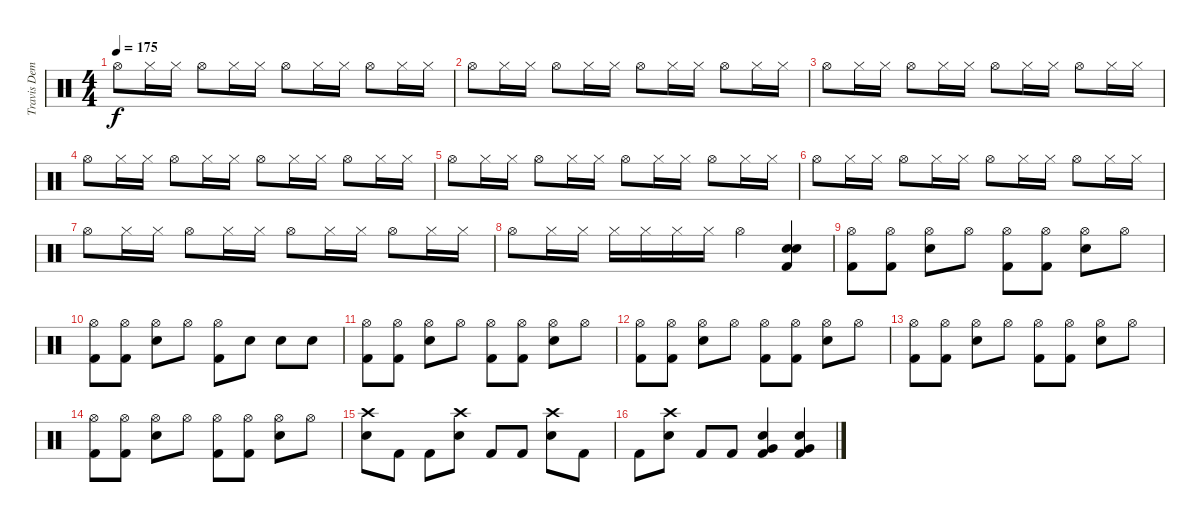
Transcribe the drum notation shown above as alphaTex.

\track ("Travis Dempsey" "Travis Dem") {instrument percussion}
\staff {score}
\articulation defaults
\ts (4 4)
\tempo 175
\clef neutral
\ks c "Hi-Hat (open)".8{dy f} "Hi-Hat (closed)".16 "Hi-Hat (closed)".16 "Hi-Hat (open)".8 "Hi-Hat (closed)".16 "Hi-Hat (closed)".16 "Hi-Hat (open)".8 "Hi-Hat (closed)".16 "Hi-Hat (closed)".16 "Hi-Hat (open)".8 "Hi-Hat (closed)".16 "Hi-Hat (closed)".16
|
"Hi-Hat (open)".8 "Hi-Hat (closed)".16 "Hi-Hat (closed)".16 "Hi-Hat (open)".8 "Hi-Hat (closed)".16 "Hi-Hat (closed)".16 "Hi-Hat (open)".8 "Hi-Hat (closed)".16 "Hi-Hat (closed)".16 "Hi-Hat (open)".8 "Hi-Hat (closed)".16 "Hi-Hat (closed)".16 |
"Hi-Hat (open)".8 "Hi-Hat (closed)".16 "Hi-Hat (closed)".16 "Hi-Hat (open)".8 "Hi-Hat (closed)".16 "Hi-Hat (closed)".16 "Hi-Hat (open)".8 "Hi-Hat (closed)".16 "Hi-Hat (closed)".16 "Hi-Hat (open)".8 "Hi-Hat (closed)".16 "Hi-Hat (closed)".16 |
"Hi-Hat (open)".8 "Hi-Hat (closed)".16 "Hi-Hat (closed)".16 "Hi-Hat (open)".8 "Hi-Hat (closed)".16 "Hi-Hat (closed)".16 "Hi-Hat (open)".8 "Hi-Hat (closed)".16 "Hi-Hat (closed)".16 "Hi-Hat (open)".8 "Hi-Hat (closed)".16 "Hi-Hat (closed)".16 |
"Hi-Hat (open)".8 "Hi-Hat (closed)".16 "Hi-Hat (closed)".16 "Hi-Hat (open)".8 "Hi-Hat (closed)".16 "Hi-Hat (closed)".16 "Hi-Hat (open)".8 "Hi-Hat (closed)".16 "Hi-Hat (closed)".16 "Hi-Hat (open)".8 "Hi-Hat (closed)".16 "Hi-Hat (closed)".16 |
"Hi-Hat (open)".8 "Hi-Hat (closed)".16 "Hi-Hat (closed)".16 "Hi-Hat (open)".8 "Hi-Hat (closed)".16 "Hi-Hat (closed)".16 "Hi-Hat (open)".8 "Hi-Hat (closed)".16 "Hi-Hat (closed)".16 "Hi-Hat (open)".8 "Hi-Hat (closed)".16 "Hi-Hat (closed)".16 |
"Hi-Hat (open)".8 "Hi-Hat (closed)".16 "Hi-Hat (closed)".16 "Hi-Hat (open)".8 "Hi-Hat (closed)".16 "Hi-Hat (closed)".16 "Hi-Hat (open)".8 "Hi-Hat (closed)".16 "Hi-Hat (closed)".16 "Hi-Hat (open)".8 "Hi-Hat (closed)".16 "Hi-Hat (closed)".16 |
"Hi-Hat (open)".8 "Hi-Hat (closed)".16 "Hi-Hat (closed)".16 "Hi-Hat (closed)".16 "Hi-Hat (closed)".16 "Hi-Hat (closed)".16 "Hi-Hat (closed)".16 "Hi-Hat (open)".4 ("Electric Snare (hit)" "Electric Snare (hit)" "Kick (hit) 2").4 |
("Hi-Hat (open)" "Kick (hit) 2").8 ("Hi-Hat (open)" "Kick (hit) 2").8 ("Hi-Hat (open)" "Electric Snare (hit)").8 "Hi-Hat (open)".8 ("Hi-Hat (open)" "Kick (hit) 2").8 ("Hi-Hat (open)" "Kick (hit) 2").8 ("Hi-Hat (open)" "Electric Snare (hit)").8 "Hi-Hat (open)".8 |
("Hi-Hat (open)" "Kick (hit) 2").8 ("Hi-Hat (open)" "Kick (hit) 2").8 ("Hi-Hat (open)" "Electric Snare (hit)").8 "Hi-Hat (open)".8 ("Hi-Hat (open)" "Kick (hit) 2").8 "Electric Snare (hit)".8 "Electric Snare (hit)".8 "Electric Snare (hit)".8 |
("Hi-Hat (open)" "Kick (hit) 2").8 ("Hi-Hat (open)" "Kick (hit) 2").8 ("Hi-Hat (open)" "Electric Snare (hit)").8 "Hi-Hat (open)".8 ("Hi-Hat (open)" "Kick (hit) 2").8 ("Hi-Hat (open)" "Kick (hit) 2").8 ("Hi-Hat (open)" "Electric Snare (hit)").8 "Hi-Hat (open)".8 |
("Hi-Hat (open)" "Kick (hit) 2").8 ("Hi-Hat (open)" "Kick (hit) 2").8 ("Hi-Hat (open)" "Electric Snare (hit)").8 "Hi-Hat (open)".8 ("Hi-Hat (open)" "Kick (hit) 2").8 ("Hi-Hat (open)" "Kick (hit) 2").8 ("Hi-Hat (open)" "Electric Snare (hit)").8 "Hi-Hat (open)".8 |
("Hi-Hat (open)" "Kick (hit) 2").8 ("Hi-Hat (open)" "Kick (hit) 2").8 ("Hi-Hat (open)" "Electric Snare (hit)").8 "Hi-Hat (open)".8 ("Hi-Hat (open)" "Kick (hit) 2").8 ("Hi-Hat (open)" "Kick (hit) 2").8 ("Hi-Hat (open)" "Electric Snare (hit)").8 "Hi-Hat (open)".8 |
("Hi-Hat (open)" "Kick (hit) 2").8 ("Hi-Hat (open)" "Kick (hit) 2").8 ("Hi-Hat (open)" "Electric Snare (hit)").8 "Hi-Hat (open)".8 ("Hi-Hat (open)" "Kick (hit) 2").8 ("Hi-Hat (open)" "Kick (hit) 2").8 ("Hi-Hat (open)" "Electric Snare (hit)").8 "Hi-Hat (open)".8 |
("Crash high (hit)" "Electric Snare (hit)").8 "Kick (hit) 2".8 "Kick (hit) 2".8 ("Crash high (hit)" "Electric Snare (hit)").8 "Kick (hit) 2".8 "Kick (hit) 2".8 ("Crash high (hit)" "Electric Snare (hit)").8 "Kick (hit) 2".8 |
"Kick (hit) 2".8 ("Crash high (hit)" "Electric Snare (hit)").8 "Kick (hit) 2".8 "Kick (hit) 2".8 ("Electric Snare (hit)" "Very Low Tom (hit)" "Kick (hit) 2").4 ("Electric Snare (hit)" "Very Low Tom (hit)" "Kick (hit) 2").4
